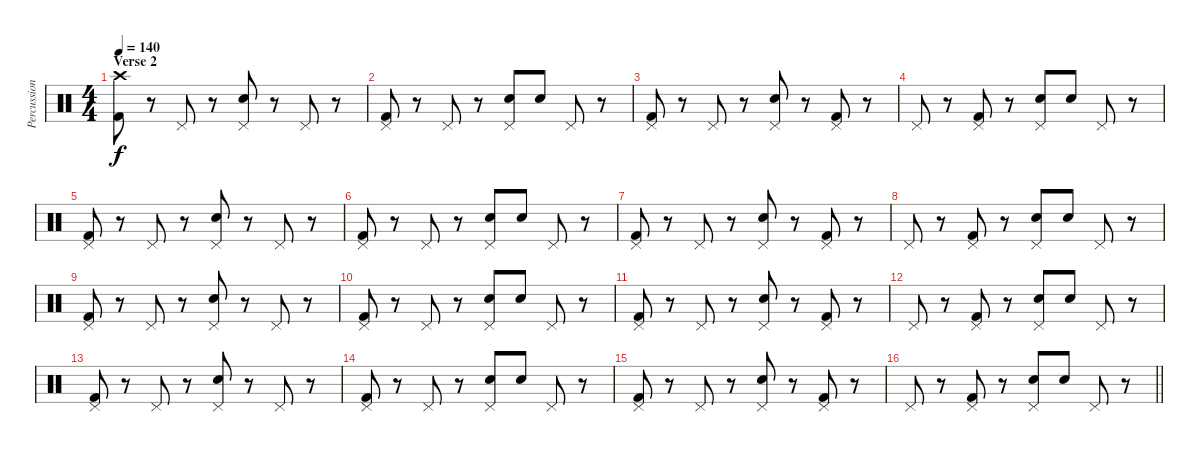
\track ("Percussion" "Percussion") {instrument percussion}
\staff {score}
\articulation defaults
\ts (4 4)
\section ("" "Verse 2")
\tempo 140
\clef neutral
\ks c
("Crash high (hit)" "Kick (hit) 2").8{dy f} r.8 "Pedal Hi-Hat (hit)".8 r.8 ("Pedal Hi-Hat (hit)" "Snare (hit) 2").8 r.8 "Pedal Hi-Hat (hit)".8 r.8 |
("Pedal Hi-Hat (hit)" "Kick (hit) 2").8 r.8 "Pedal Hi-Hat (hit)".8 r.8 ("Pedal Hi-Hat (hit)" "Snare (hit) 2").8 "Snare (hit) 2".8 "Pedal Hi-Hat (hit)".8 r.8 |
("Pedal Hi-Hat (hit)" "Kick (hit) 2").8 r.8 "Pedal Hi-Hat (hit)".8 r.8 ("Pedal Hi-Hat (hit)" "Snare (hit) 2").8 r.8 ("Pedal Hi-Hat (hit)" "Kick (hit) 2").8 r.8 |
"Pedal Hi-Hat (hit)".8 r.8 ("Pedal Hi-Hat (hit)" "Kick (hit) 2").8 r.8 ("Pedal Hi-Hat (hit)" "Snare (hit) 2").8 "Snare (hit) 2".8 "Pedal Hi-Hat (hit)".8 r.8 |
("Pedal Hi-Hat (hit)" "Kick (hit) 2").8 r.8 "Pedal Hi-Hat (hit)".8 r.8 ("Pedal Hi-Hat (hit)" "Snare (hit) 2").8 r.8 "Pedal Hi-Hat (hit)".8 r.8 |
("Pedal Hi-Hat (hit)" "Kick (hit) 2").8 r.8 "Pedal Hi-Hat (hit)".8 r.8 ("Pedal Hi-Hat (hit)" "Snare (hit) 2").8 "Snare (hit) 2".8 "Pedal Hi-Hat (hit)".8 r.8 |
("Pedal Hi-Hat (hit)" "Kick (hit) 2").8 r.8 "Pedal Hi-Hat (hit)".8 r.8 ("Pedal Hi-Hat (hit)" "Snare (hit) 2").8 r.8 ("Pedal Hi-Hat (hit)" "Kick (hit) 2").8 r.8 |
"Pedal Hi-Hat (hit)".8 r.8 ("Pedal Hi-Hat (hit)" "Kick (hit) 2").8 r.8 ("Pedal Hi-Hat (hit)" "Snare (hit) 2").8 "Snare (hit) 2".8 "Pedal Hi-Hat (hit)".8 r.8 |
("Pedal Hi-Hat (hit)" "Kick (hit) 2").8 r.8 "Pedal Hi-Hat (hit)".8 r.8 ("Pedal Hi-Hat (hit)" "Snare (hit) 2").8 r.8 "Pedal Hi-Hat (hit)".8 r.8 |
("Pedal Hi-Hat (hit)" "Kick (hit) 2").8 r.8 "Pedal Hi-Hat (hit)".8 r.8 ("Pedal Hi-Hat (hit)" "Snare (hit) 2").8 "Snare (hit) 2".8 "Pedal Hi-Hat (hit)".8 r.8 |
("Pedal Hi-Hat (hit)" "Kick (hit) 2").8 r.8 "Pedal Hi-Hat (hit)".8 r.8 ("Pedal Hi-Hat (hit)" "Snare (hit) 2").8 r.8 ("Pedal Hi-Hat (hit)" "Kick (hit) 2").8 r.8 |
"Pedal Hi-Hat (hit)".8 r.8 ("Pedal Hi-Hat (hit)" "Kick (hit) 2").8 r.8 ("Pedal Hi-Hat (hit)" "Snare (hit) 2").8 "Snare (hit) 2".8 "Pedal Hi-Hat (hit)".8 r.8 |
("Pedal Hi-Hat (hit)" "Kick (hit) 2").8 r.8 "Pedal Hi-Hat (hit)".8 r.8 ("Pedal Hi-Hat (hit)" "Snare (hit) 2").8 r.8 "Pedal Hi-Hat (hit)".8 r.8 |
("Pedal Hi-Hat (hit)" "Kick (hit) 2").8 r.8 "Pedal Hi-Hat (hit)".8 r.8 ("Pedal Hi-Hat (hit)" "Snare (hit) 2").8 "Snare (hit) 2".8 "Pedal Hi-Hat (hit)".8 r.8 |
("Pedal Hi-Hat (hit)" "Kick (hit) 2").8 r.8 "Pedal Hi-Hat (hit)".8 r.8 ("Pedal Hi-Hat (hit)" "Snare (hit) 2").8 r.8 ("Pedal Hi-Hat (hit)" "Kick (hit) 2").8 r.8 |
\barLineRight lightlight "Pedal Hi-Hat (hit)".8
r.8 ("Pedal Hi-Hat (hit)" "Kick (hit) 2").8 r.8 ("Pedal Hi-Hat (hit)" "Snare (hit) 2").8 "Snare (hit) 2".8 "Pedal Hi-Hat (hit)".8 r.8
